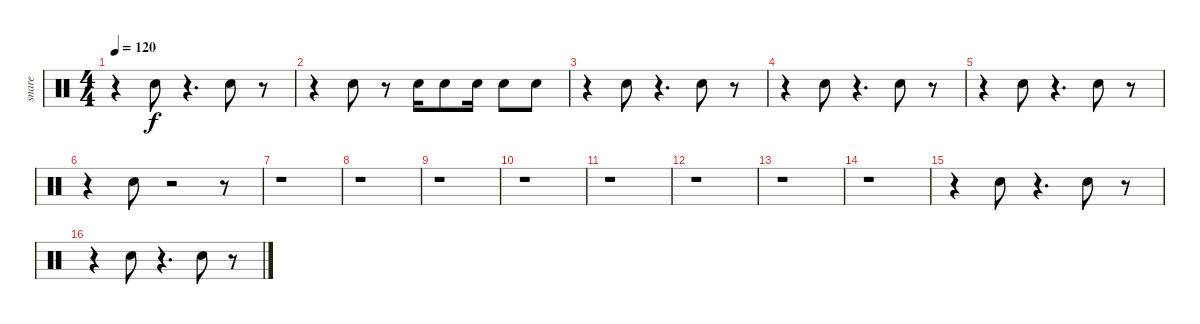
\track ("snare" "snare") {instrument percussion}
\staff {score}
\articulation defaults
\ts (4 4)
\tempo 120
\clef neutral
\ks c
r.4{dy f} "Electric Snare (hit)".8 r.4{d} "Electric Snare (hit)".8 r.8 |
r.4 "Electric Snare (hit)".8 r.8 "Electric Snare (hit)".16 "Electric Snare (hit)".8 "Electric Snare (hit)".16 "Electric Snare (hit)".8 "Electric Snare (hit)".8 |
r.4 "Electric Snare (hit)".8 r.4{d} "Electric Snare (hit)".8 r.8 |
r.4 "Electric Snare (hit)".8 r.4{d} "Electric Snare (hit)".8 r.8 |
r.4 "Electric Snare (hit)".8 r.4{d} "Electric Snare (hit)".8 r.8 |
r.4 "Electric Snare (hit)".8 r.2 r.8 |
r.1 |
r.1 |
r.1 |
r.1 |
r.1 |
r.1 |
r.1 |
r.1 |
r.4 "Electric Snare (hit)".8 r.4{d} "Electric Snare (hit)".8 r.8 |
r.4 "Electric Snare (hit)".8 r.4{d} "Electric Snare (hit)".8 r.8
